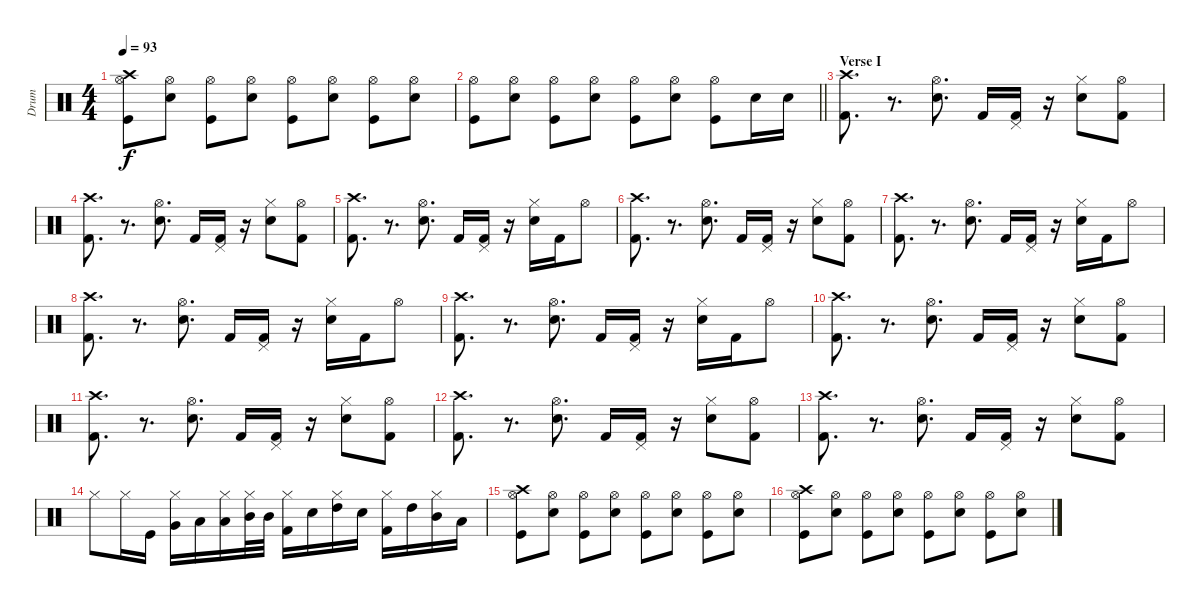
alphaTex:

\track ("Drum" "Drum") {instrument percussion}
\staff {score}
\articulation defaults
\ts (4 4)
\tempo 93
\clef neutral
\ks c
("Kick (hit)" "Hi-Hat (open)" "Crash high (hit)").8{dy f} ("Snare (hit) 2" "Hi-Hat (open)").8 ("Kick (hit)" "Hi-Hat (open)").8 ("Snare (hit) 2" "Hi-Hat (open)").8 ("Kick (hit)" "Hi-Hat (open)").8 ("Snare (hit) 2" "Hi-Hat (open)").8 ("Kick (hit)" "Hi-Hat (open)").8 ("Snare (hit) 2" "Hi-Hat (open)").8 |
\barLineRight lightlight
("Kick (hit)" "Hi-Hat (open)").8 ("Snare (hit) 2" "Hi-Hat (open)").8 ("Kick (hit)" "Hi-Hat (open)").8 ("Snare (hit) 2" "Hi-Hat (open)").8 ("Kick (hit)" "Hi-Hat (open)").8 ("Snare (hit) 2" "Hi-Hat (open)").8 ("Kick (hit)" "Hi-Hat (open)").8 "Snare (hit) 2".16 "Snare (hit) 2".16 |
\section ("" "Verse I")
("Crash high (hit)" "Kick (hit) 2").8{d} r.8{d} ("Hi-Hat (open)" "Snare (hit) 2").8{d} "Kick (hit) 2".16 ("Pedal Hi-Hat (hit)" "Kick (hit) 2").16 r.16 ("Hi-Hat (closed)" "Snare (hit) 2").8 ("Hi-Hat (open)" "Kick (hit) 2").8 |
("Crash high (hit)" "Kick (hit) 2").8{d} r.8{d} ("Hi-Hat (open)" "Snare (hit) 2").8{d} "Kick (hit) 2".16 ("Pedal Hi-Hat (hit)" "Kick (hit) 2").16 r.16 ("Hi-Hat (closed)" "Snare (hit) 2").8 ("Hi-Hat (open)" "Kick (hit) 2").8 |
("Crash high (hit)" "Kick (hit) 2").8{d} r.8{d} ("Hi-Hat (open)" "Snare (hit) 2").8{d} "Kick (hit) 2".16 ("Pedal Hi-Hat (hit)" "Kick (hit) 2").16 r.16 ("Hi-Hat (closed)" "Snare (hit) 2").16 "Kick (hit) 2".16 "Hi-Hat (open)".8 |
("Crash high (hit)" "Kick (hit) 2").8{d} r.8{d} ("Hi-Hat (open)" "Snare (hit) 2").8{d} "Kick (hit) 2".16 ("Pedal Hi-Hat (hit)" "Kick (hit) 2").16 r.16 ("Hi-Hat (closed)" "Snare (hit) 2").8 ("Hi-Hat (open)" "Kick (hit) 2").8 |
("Crash high (hit)" "Kick (hit) 2").8{d} r.8{d} ("Hi-Hat (open)" "Snare (hit) 2").8{d} "Kick (hit) 2".16 ("Pedal Hi-Hat (hit)" "Kick (hit) 2").16 r.16 ("Hi-Hat (closed)" "Snare (hit) 2").16 "Kick (hit) 2".16 "Hi-Hat (open)".8 |
("Crash high (hit)" "Kick (hit) 2").8{d} r.8{d} ("Hi-Hat (open)" "Snare (hit) 2").8{d} "Kick (hit) 2".16 ("Pedal Hi-Hat (hit)" "Kick (hit) 2").16 r.16 ("Hi-Hat (closed)" "Snare (hit) 2").16 "Kick (hit) 2".16 "Hi-Hat (open)".8 |
("Crash high (hit)" "Kick (hit) 2").8{d} r.8{d} ("Hi-Hat (open)" "Snare (hit) 2").8{d} "Kick (hit) 2".16 ("Pedal Hi-Hat (hit)" "Kick (hit) 2").16 r.16 ("Hi-Hat (closed)" "Snare (hit) 2").16 "Kick (hit) 2".16 "Hi-Hat (open)".8 |
("Crash high (hit)" "Kick (hit) 2").8{d} r.8{d} ("Hi-Hat (open)" "Snare (hit) 2").8{d} "Kick (hit) 2".16 ("Pedal Hi-Hat (hit)" "Kick (hit) 2").16 r.16 ("Hi-Hat (closed)" "Snare (hit) 2").8 ("Hi-Hat (open)" "Kick (hit) 2").8 |
("Crash high (hit)" "Kick (hit) 2").8{d} r.8{d} ("Hi-Hat (open)" "Snare (hit) 2").8{d} "Kick (hit) 2".16 ("Pedal Hi-Hat (hit)" "Kick (hit) 2").16 r.16 ("Hi-Hat (closed)" "Snare (hit) 2").8 ("Hi-Hat (open)" "Kick (hit) 2").8 |
("Crash high (hit)" "Kick (hit) 2").8{d} r.8{d} ("Hi-Hat (open)" "Snare (hit) 2").8{d} "Kick (hit) 2".16 ("Pedal Hi-Hat (hit)" "Kick (hit) 2").16 r.16 ("Hi-Hat (closed)" "Snare (hit) 2").8 ("Hi-Hat (open)" "Kick (hit) 2").8 |
("Crash high (hit)" "Kick (hit) 2").8{d} r.8{d} ("Hi-Hat (open)" "Snare (hit) 2").8{d} "Kick (hit) 2".16 ("Pedal Hi-Hat (hit)" "Kick (hit) 2").16 r.16 ("Hi-Hat (closed)" "Snare (hit) 2").8 ("Hi-Hat (open)" "Kick (hit) 2").8 |
"Hi-Hat (closed)".8 "Hi-Hat (closed)".16 "Kick (hit)".16 ("Hi-Hat (closed)" "Very Low Tom (hit)").16 "Low Floor Tom (hit)".16 ("Hi-Hat (closed)" "Low Tom (hit)").16 ("Hi-Hat (closed)" "Mid Tom (hit)").32 "Mid Tom (hit)".32 ("Hi-Hat (closed)" "Kick (hit) 2").16 "Snare (hit) 2".16 ("Hi-Hat (closed)" "High Tom (hit)").16 "Snare (hit) 2".16 ("Hi-Hat (closed)" "Kick (hit) 2").16 "High Tom (hit)".16 ("Hi-Hat (closed)" "Mid Tom (hit)").16 "Low Floor Tom (hit)".16 |
("Kick (hit)" "Hi-Hat (open)" "Crash high (hit)").8 ("Snare (hit) 2" "Hi-Hat (open)").8 ("Kick (hit)" "Hi-Hat (open)").8 ("Snare (hit) 2" "Hi-Hat (open)").8 ("Kick (hit)" "Hi-Hat (open)").8 ("Snare (hit) 2" "Hi-Hat (open)").8 ("Kick (hit)" "Hi-Hat (open)").8 ("Snare (hit) 2" "Hi-Hat (open)").8 |
("Kick (hit)" "Hi-Hat (open)" "Crash high (hit)").8 ("Snare (hit) 2" "Hi-Hat (open)").8 ("Kick (hit)" "Hi-Hat (open)").8 ("Snare (hit) 2" "Hi-Hat (open)").8 ("Kick (hit)" "Hi-Hat (open)").8 ("Snare (hit) 2" "Hi-Hat (open)").8 ("Kick (hit)" "Hi-Hat (open)").8 ("Snare (hit) 2" "Hi-Hat (open)").8
